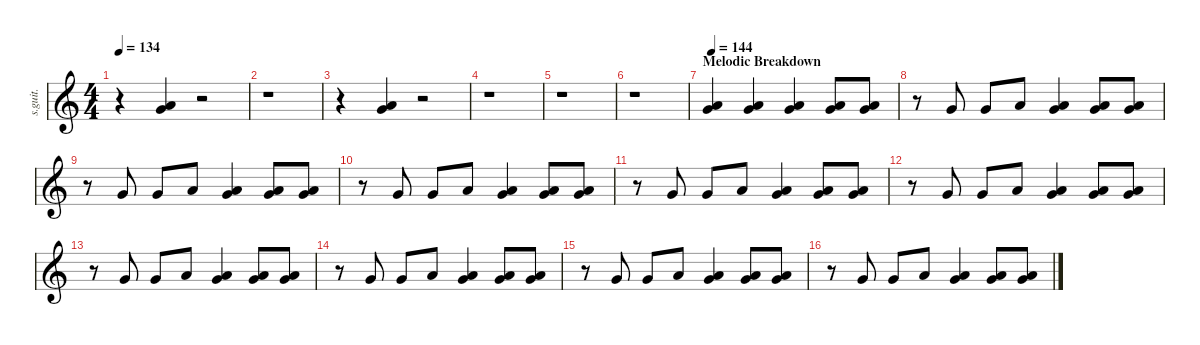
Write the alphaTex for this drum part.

\defaultSystemsLayout 4
\hideDynamics
\bracketExtendMode nobrackets
\track ("Chris Fehn" "s.guit.") {instrument percussion}
\staff {score}
\articulation defaults
\ts (4 4)
\tempo 134
\clef g2
\ks c
r.4{dy f} ("Very Low Tom (hit)" "Low Floor Tom (hit)").4 r.2 |
r.1 |
r.4 ("Very Low Tom (hit)" "Low Floor Tom (hit)").4 r.2 |
r.1 |
r.1 |
r.1 |
\section ("" "Melodic Breakdown")
\tempo 144
("Low Floor Tom (hit)" "Very Low Tom (hit)").4 ("Low Floor Tom (hit)" "Very Low Tom (hit)").4 ("Very Low Tom (hit)" "Low Floor Tom (hit)").4 ("Very Low Tom (hit)" "Low Floor Tom (hit)").8 ("Very Low Tom (hit)" "Low Floor Tom (hit)").8 |
r.8 "Very Low Tom (hit)".8 "Very Low Tom (hit)".8 "Low Floor Tom (hit)".8 ("Very Low Tom (hit)" "Low Floor Tom (hit)").4 ("Very Low Tom (hit)" "Low Floor Tom (hit)").8 ("Very Low Tom (hit)" "Low Floor Tom (hit)").8 |
r.8 "Very Low Tom (hit)".8 "Very Low Tom (hit)".8 "Low Floor Tom (hit)".8 ("Very Low Tom (hit)" "Low Floor Tom (hit)").4 ("Very Low Tom (hit)" "Low Floor Tom (hit)").8 ("Very Low Tom (hit)" "Low Floor Tom (hit)").8 |
r.8 "Very Low Tom (hit)".8 "Very Low Tom (hit)".8 "Low Floor Tom (hit)".8 ("Very Low Tom (hit)" "Low Floor Tom (hit)").4 ("Very Low Tom (hit)" "Low Floor Tom (hit)").8 ("Very Low Tom (hit)" "Low Floor Tom (hit)").8 |
r.8 "Very Low Tom (hit)".8 "Very Low Tom (hit)".8 "Low Floor Tom (hit)".8 ("Very Low Tom (hit)" "Low Floor Tom (hit)").4 ("Very Low Tom (hit)" "Low Floor Tom (hit)").8 ("Very Low Tom (hit)" "Low Floor Tom (hit)").8 |
r.8 "Very Low Tom (hit)".8 "Very Low Tom (hit)".8 "Low Floor Tom (hit)".8 ("Very Low Tom (hit)" "Low Floor Tom (hit)").4 ("Very Low Tom (hit)" "Low Floor Tom (hit)").8 ("Very Low Tom (hit)" "Low Floor Tom (hit)").8 |
r.8 "Very Low Tom (hit)".8 "Very Low Tom (hit)".8 "Low Floor Tom (hit)".8 ("Very Low Tom (hit)" "Low Floor Tom (hit)").4 ("Very Low Tom (hit)" "Low Floor Tom (hit)").8 ("Very Low Tom (hit)" "Low Floor Tom (hit)").8 |
r.8 "Very Low Tom (hit)".8 "Very Low Tom (hit)".8 "Low Floor Tom (hit)".8 ("Very Low Tom (hit)" "Low Floor Tom (hit)").4 ("Very Low Tom (hit)" "Low Floor Tom (hit)").8 ("Very Low Tom (hit)" "Low Floor Tom (hit)").8 |
r.8 "Very Low Tom (hit)".8 "Very Low Tom (hit)".8 "Low Floor Tom (hit)".8 ("Very Low Tom (hit)" "Low Floor Tom (hit)").4 ("Very Low Tom (hit)" "Low Floor Tom (hit)").8 ("Very Low Tom (hit)" "Low Floor Tom (hit)").8 |
r.8 "Very Low Tom (hit)".8 "Very Low Tom (hit)".8 "Low Floor Tom (hit)".8 ("Very Low Tom (hit)" "Low Floor Tom (hit)").4 ("Very Low Tom (hit)" "Low Floor Tom (hit)").8 ("Very Low Tom (hit)" "Low Floor Tom (hit)").8
